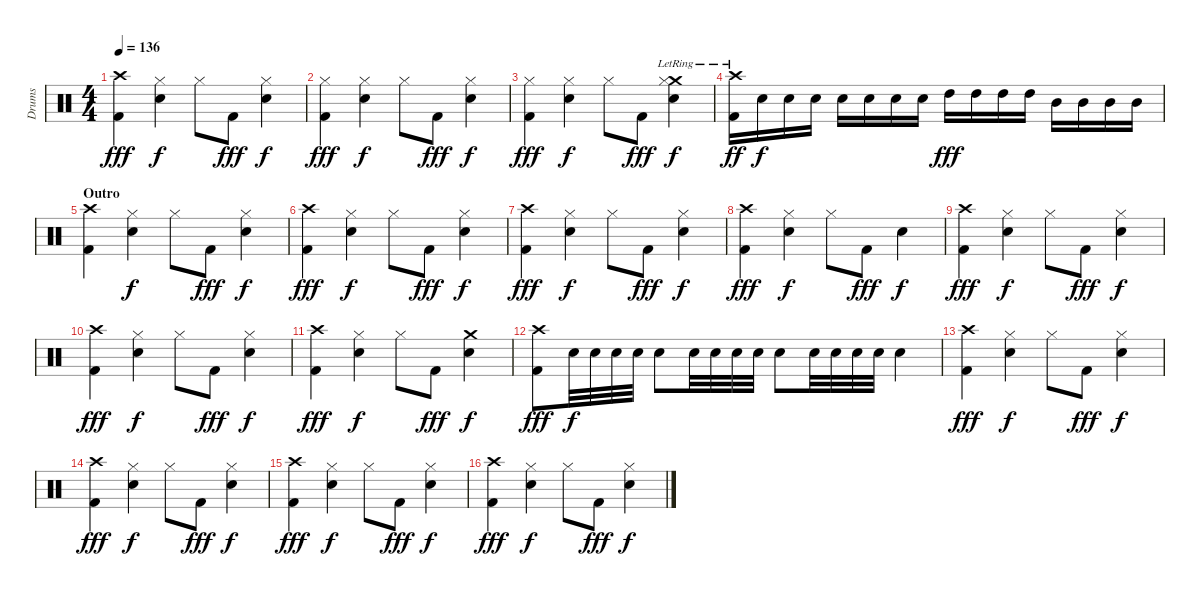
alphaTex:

\track ("Drums" "Drums") {instrument percussion}
\staff {score}
\articulation defaults
\ts (4 4)
\tempo 136
\clef neutral
\ks c
("Crash high (hit)" "Kick (hit) 2").4{txt " " dy fff} ("Hi-Hat (closed)" "Snare (hit) 2").4{dy f} "Hi-Hat (closed)".8 "Kick (hit) 2".8{dy fff} ("Hi-Hat (closed)" "Snare (hit) 2").4{dy f} |
("Hi-Hat (closed)" "Kick (hit) 2").4{txt " " dy fff} ("Hi-Hat (closed)" "Snare (hit) 2").4{dy f} "Hi-Hat (closed)".8 "Kick (hit) 2".8{dy fff} ("Hi-Hat (closed)" "Snare (hit) 2").4{dy f} |
("Hi-Hat (closed)" "Kick (hit) 2").4{txt " " dy fff} ("Hi-Hat (closed)" "Snare (hit) 2").4{dy f} "Hi-Hat (closed)".8 "Kick (hit) 2".8{dy fff} ("Crash medium (hit)"{lr} "Hi-Hat (closed)" "Snare (hit) 2").4{dy f} |
("Crash high (hit)"{lr} "Kick (hit) 2").16{txt " " dy ff} "Snare (hit) 2".16{dy f} "Snare (hit) 2".16 "Snare (hit) 2".16 "Snare (hit) 2".16 "Snare (hit) 2".16 "Snare (hit) 2".16 "Snare (hit) 2".16 "High Tom (hit)".16{dy fff} "High Tom (hit)".16 "High Tom (hit)".16 "High Tom (hit)".16 "Mid Tom (hit)".16 "Mid Tom (hit)".16 "Mid Tom (hit)".16 "Mid Tom (hit)".16 |
\section ("" "Outro")
("Crash high (hit)" "Kick (hit) 2").4{txt " "} ("Hi-Hat (closed)" "Snare (hit) 2").4{dy f} "Hi-Hat (closed)".8 "Kick (hit) 2".8{dy fff} ("Hi-Hat (closed)" "Snare (hit) 2").4{dy f} |
("Crash high (hit)" "Kick (hit) 2").4{txt " " dy fff} ("Hi-Hat (closed)" "Snare (hit) 2").4{dy f} "Hi-Hat (closed)".8 "Kick (hit) 2".8{dy fff} ("Hi-Hat (closed)" "Snare (hit) 2").4{dy f} |
("Crash high (hit)" "Kick (hit) 2").4{txt " " dy fff} ("Hi-Hat (closed)" "Snare (hit) 2").4{dy f} "Hi-Hat (closed)".8 "Kick (hit) 2".8{dy fff} ("Hi-Hat (closed)" "Snare (hit) 2").4{dy f} |
("Crash high (hit)" "Kick (hit) 2").4{txt " " dy fff} ("Hi-Hat (closed)" "Snare (hit) 2").4{dy f} "Hi-Hat (closed)".8 "Kick (hit) 2".8{dy fff} "Snare (hit) 2".4{dy f} |
("Crash high (hit)" "Kick (hit) 2").4{txt " " dy fff} ("Hi-Hat (closed)" "Snare (hit) 2").4{dy f} "Hi-Hat (closed)".8 "Kick (hit) 2".8{dy fff} ("Hi-Hat (closed)" "Snare (hit) 2").4{dy f} |
("Crash high (hit)" "Kick (hit) 2").4{txt " " dy fff} ("Hi-Hat (closed)" "Snare (hit) 2").4{dy f} "Hi-Hat (closed)".8 "Kick (hit) 2".8{dy fff} ("Hi-Hat (closed)" "Snare (hit) 2").4{dy f} |
("Crash high (hit)" "Kick (hit) 2").4{txt " " dy fff} ("Hi-Hat (closed)" "Snare (hit) 2").4{dy f} "Hi-Hat (closed)".8 "Kick (hit) 2".8{dy fff} ("Crash medium (hit)" "Snare (hit) 2").4{dy f} |
("Crash high (hit)" "Kick (hit) 2").8{txt " " dy fff} "Snare (hit) 2".32{dy f} "Snare (hit) 2".32 "Snare (hit) 2".32 "Snare (hit) 2".32 "Snare (hit) 2".8 "Snare (hit) 2".32 "Snare (hit) 2".32 "Snare (hit) 2".32 "Snare (hit) 2".32 "Snare (hit) 2".8 "Snare (hit) 2".32 "Snare (hit) 2".32 "Snare (hit) 2".32 "Snare (hit) 2".32 "Snare (hit) 2".4 |
("Crash high (hit)" "Kick (hit) 2").4{txt " " dy fff} ("Hi-Hat (closed)" "Snare (hit) 2").4{dy f} "Hi-Hat (closed)".8 "Kick (hit) 2".8{dy fff} ("Hi-Hat (closed)" "Snare (hit) 2").4{dy f} |
("Crash high (hit)" "Kick (hit) 2").4{txt " " dy fff} ("Hi-Hat (closed)" "Snare (hit) 2").4{dy f} "Hi-Hat (closed)".8 "Kick (hit) 2".8{dy fff} ("Hi-Hat (closed)" "Snare (hit) 2").4{dy f} |
("Crash high (hit)" "Kick (hit) 2").4{txt " " dy fff} ("Hi-Hat (closed)" "Snare (hit) 2").4{dy f} "Hi-Hat (closed)".8 "Kick (hit) 2".8{dy fff} ("Hi-Hat (closed)" "Snare (hit) 2").4{dy f} |
("Crash high (hit)" "Kick (hit) 2").4{txt " " dy fff} ("Hi-Hat (closed)" "Snare (hit) 2").4{dy f} "Hi-Hat (closed)".8 "Kick (hit) 2".8{dy fff} ("Hi-Hat (closed)" "Snare (hit) 2").4{dy f}
